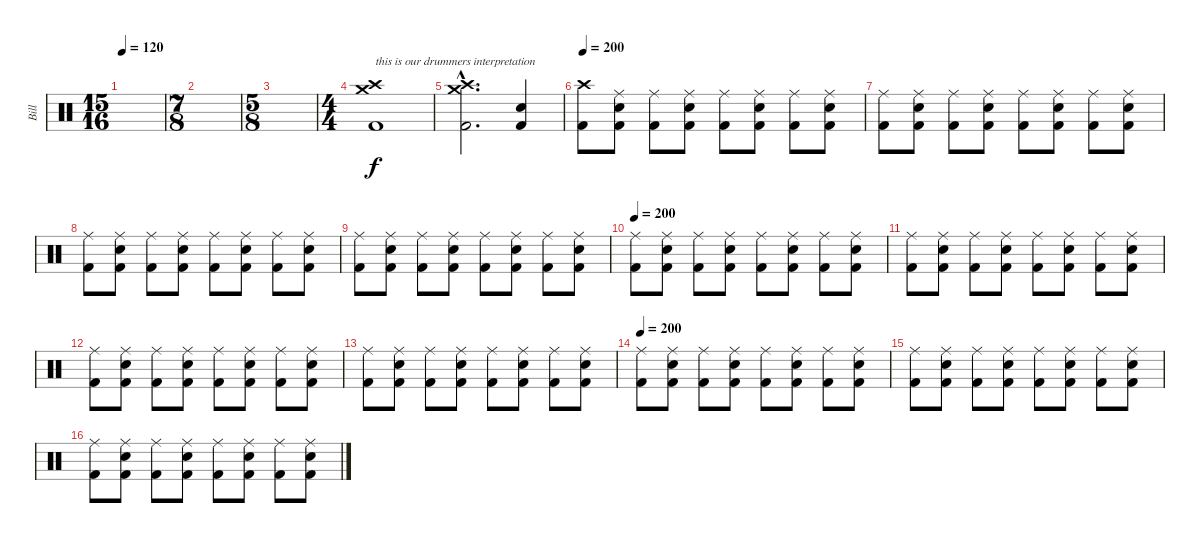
\track ("Bill" "Bill") {instrument percussion}
\staff {score}
\articulation defaults
\ts (15 16)
\tempo 120
\tempo 160
\tempo 120
\clef neutral
\ks c
|
\ts (7 8)
|
\ts (5 8)
|
\ts (4 4)
("Crash high (hit)" "Crash medium (hit)" "Kick (hit) 2").1{txt "this is our drummers interpretation"} |
("Crash medium (hit)"{hac} "Crash high (hit)"{hac} "Kick (hit) 2"{hac}).2{d} ("Snare (hit) 2" "Kick (hit) 2").4 |
\tempo 200
("Crash high (hit)" "Kick (hit) 2").8 ("Ride (middle)" "Snare (hit) 2" "Kick (hit) 2").8 ("Ride (middle)" "Kick (hit) 2").8 ("Ride (middle)" "Snare (hit) 2" "Kick (hit) 2").8 ("Ride (middle)" "Kick (hit) 2").8 ("Ride (middle)" "Snare (hit) 2" "Kick (hit) 2").8 ("Ride (middle)" "Kick (hit) 2").8 ("Ride (middle)" "Snare (hit) 2" "Kick (hit) 2").8 |
("Ride (middle)" "Kick (hit) 2").8 ("Ride (middle)" "Snare (hit) 2" "Kick (hit) 2").8 ("Ride (middle)" "Kick (hit) 2").8 ("Ride (middle)" "Snare (hit) 2" "Kick (hit) 2").8 ("Ride (middle)" "Kick (hit) 2").8 ("Ride (middle)" "Snare (hit) 2" "Kick (hit) 2").8 ("Ride (middle)" "Kick (hit) 2").8 ("Ride (middle)" "Snare (hit) 2" "Kick (hit) 2").8 |
("Ride (middle)" "Kick (hit) 2").8 ("Ride (middle)" "Snare (hit) 2" "Kick (hit) 2").8 ("Ride (middle)" "Kick (hit) 2").8 ("Ride (middle)" "Snare (hit) 2" "Kick (hit) 2").8 ("Ride (middle)" "Kick (hit) 2").8 ("Ride (middle)" "Snare (hit) 2" "Kick (hit) 2").8 ("Ride (middle)" "Kick (hit) 2").8 ("Ride (middle)" "Snare (hit) 2" "Kick (hit) 2").8 |
("Ride (middle)" "Kick (hit) 2").8 ("Ride (middle)" "Snare (hit) 2" "Kick (hit) 2").8 ("Ride (middle)" "Kick (hit) 2").8 ("Ride (middle)" "Snare (hit) 2" "Kick (hit) 2").8 ("Ride (middle)" "Kick (hit) 2").8 ("Ride (middle)" "Snare (hit) 2" "Kick (hit) 2").8 ("Ride (middle)" "Kick (hit) 2").8 ("Ride (middle)" "Snare (hit) 2" "Kick (hit) 2").8 |
\tempo 200
("Ride (middle)" "Kick (hit) 2").8 ("Ride (middle)" "Snare (hit) 2" "Kick (hit) 2").8 ("Ride (middle)" "Kick (hit) 2").8 ("Ride (middle)" "Snare (hit) 2" "Kick (hit) 2").8 ("Ride (middle)" "Kick (hit) 2").8 ("Ride (middle)" "Snare (hit) 2" "Kick (hit) 2").8 ("Ride (middle)" "Kick (hit) 2").8 ("Ride (middle)" "Snare (hit) 2" "Kick (hit) 2").8 |
("Ride (middle)" "Kick (hit) 2").8 ("Ride (middle)" "Snare (hit) 2" "Kick (hit) 2").8 ("Ride (middle)" "Kick (hit) 2").8 ("Ride (middle)" "Snare (hit) 2" "Kick (hit) 2").8 ("Ride (middle)" "Kick (hit) 2").8 ("Ride (middle)" "Snare (hit) 2" "Kick (hit) 2").8 ("Ride (middle)" "Kick (hit) 2").8 ("Ride (middle)" "Snare (hit) 2" "Kick (hit) 2").8 |
("Ride (middle)" "Kick (hit) 2").8 ("Ride (middle)" "Snare (hit) 2" "Kick (hit) 2").8 ("Ride (middle)" "Kick (hit) 2").8 ("Ride (middle)" "Snare (hit) 2" "Kick (hit) 2").8 ("Ride (middle)" "Kick (hit) 2").8 ("Ride (middle)" "Snare (hit) 2" "Kick (hit) 2").8 ("Ride (middle)" "Kick (hit) 2").8 ("Ride (middle)" "Snare (hit) 2" "Kick (hit) 2").8 |
("Ride (middle)" "Kick (hit) 2").8 ("Ride (middle)" "Snare (hit) 2" "Kick (hit) 2").8 ("Ride (middle)" "Kick (hit) 2").8 ("Ride (middle)" "Snare (hit) 2" "Kick (hit) 2").8 ("Ride (middle)" "Kick (hit) 2").8 ("Ride (middle)" "Snare (hit) 2" "Kick (hit) 2").8 ("Ride (middle)" "Kick (hit) 2").8 ("Ride (middle)" "Snare (hit) 2" "Kick (hit) 2").8 |
\tempo 200
("Ride (middle)" "Kick (hit) 2").8 ("Ride (middle)" "Snare (hit) 2" "Kick (hit) 2").8 ("Ride (middle)" "Kick (hit) 2").8 ("Ride (middle)" "Snare (hit) 2" "Kick (hit) 2").8 ("Ride (middle)" "Kick (hit) 2").8 ("Ride (middle)" "Snare (hit) 2" "Kick (hit) 2").8 ("Ride (middle)" "Kick (hit) 2").8 ("Ride (middle)" "Snare (hit) 2" "Kick (hit) 2").8 |
("Ride (middle)" "Kick (hit) 2").8 ("Ride (middle)" "Snare (hit) 2" "Kick (hit) 2").8 ("Ride (middle)" "Kick (hit) 2").8 ("Ride (middle)" "Snare (hit) 2" "Kick (hit) 2").8 ("Ride (middle)" "Kick (hit) 2").8 ("Ride (middle)" "Snare (hit) 2" "Kick (hit) 2").8 ("Ride (middle)" "Kick (hit) 2").8 ("Ride (middle)" "Snare (hit) 2" "Kick (hit) 2").8 |
("Ride (middle)" "Kick (hit) 2").8 ("Ride (middle)" "Snare (hit) 2" "Kick (hit) 2").8 ("Ride (middle)" "Kick (hit) 2").8 ("Ride (middle)" "Snare (hit) 2" "Kick (hit) 2").8 ("Ride (middle)" "Kick (hit) 2").8 ("Ride (middle)" "Snare (hit) 2" "Kick (hit) 2").8 ("Ride (middle)" "Kick (hit) 2").8 ("Ride (middle)" "Snare (hit) 2" "Kick (hit) 2").8
